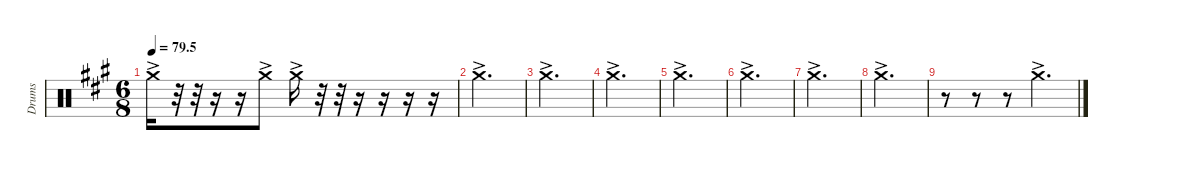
\defaultSystemsLayout 4
\hideDynamics
\bracketExtendMode nobrackets
\otherSystemsTrackNameOrientation horizontal
\track ("Right crash" "Drums") {instrument percussion}
\staff {score}
\articulation defaults
\ts (6 8)
\tempo
79.5
\accidentals auto
\clef neutral
\ottava regular
\simile none
\scale
0.333333
\ks a "Crash medium (hit)"{ac acc forcenatural}.16{dy f}
r.32 r.32 r.16 r.16 "Crash medium (hit)"{ac acc forcenatural}.8 "Crash medium (hit)"{ac acc forcenatural}.16 r.32 r.32 r.16 r.16 r.16 r.16 |
\scale
0.333333 "Crash medium (hit)"{ac acc forcenatural}.2{d} |
\scale
0.333333 "Crash medium (hit)"{ac acc forcenatural}.2{d} |
\scale
0.333333 "Crash medium (hit)"{ac acc forcenatural}.2{d} |
\scale
0.333333 "Crash medium (hit)"{ac acc forcenatural}.2{d} |
\scale
0.333333 "Crash medium (hit)"{ac acc forcenatural}.2{d} |
\scale
0.333333 "Crash medium (hit)"{ac acc forcenatural}.2{d} |
\scale
0.333333 "Crash medium (hit)"{ac acc forcenatural}.2{d} |
\scale
0.333333 r.8 r.8 r.8 "Crash medium (hit)"{ac acc forcenatural}.4{d} |
\scale
0.333333 |
\scale
0.333333 |
\scale
0.333333
